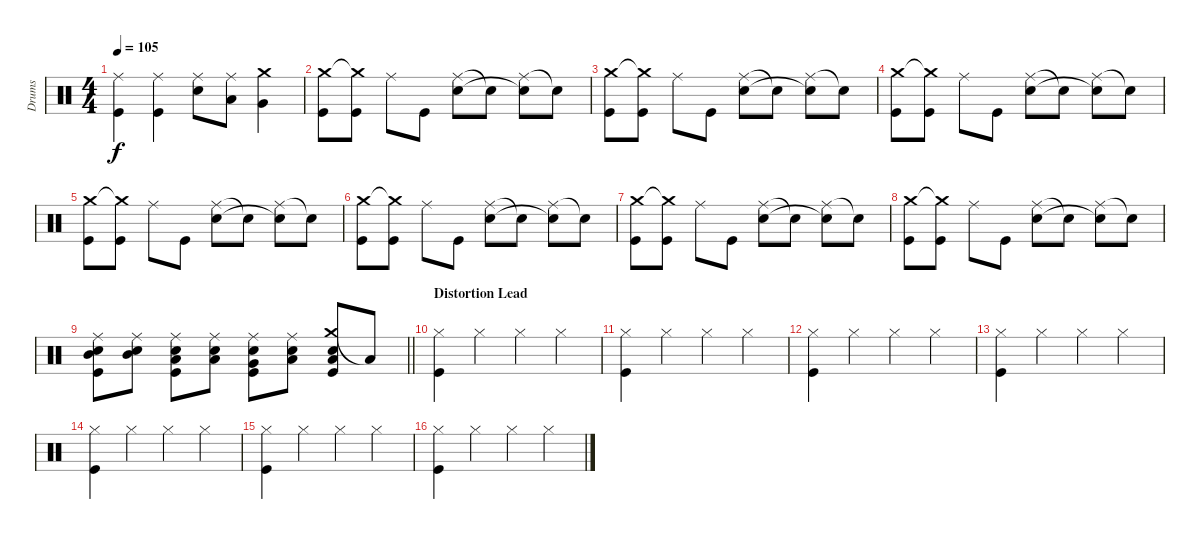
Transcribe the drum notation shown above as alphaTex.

\track ("Drums" "Drums") {instrument percussion}
\staff {score}
\articulation defaults
\ts (4 4)
\tempo 105
\clef neutral
\ks c
("Ride (middle)" "Kick (hit)").4{dy f} ("Ride (middle)" "Kick (hit)").4 ("Ride (middle)" "Snare (hit) 2").8 ("Ride (middle)" "Low Tom (hit)").8 ("Crash medium (hit)" "Very Low Tom (hit)").4 |
("Crash medium (hit)" "Kick (hit)").8 ("Crash medium (hit)"{t} "Kick (hit)").8 "Ride (middle)".8 "Kick (hit)".8 ("Ride (middle)" "Snare (hit) 2").8 "Snare (hit) 2"{t}.8 ("Ride (middle)" "Snare (hit) 2"{t}).8 "Snare (hit) 2"{t}.8 |
("Crash medium (hit)" "Kick (hit)").8 ("Crash medium (hit)"{t} "Kick (hit)").8 "Ride (middle)".8 "Kick (hit)".8 ("Ride (middle)" "Snare (hit) 2").8 "Snare (hit) 2"{t}.8 ("Ride (middle)" "Snare (hit) 2"{t}).8 "Snare (hit) 2"{t}.8 |
("Crash medium (hit)" "Kick (hit)").8 ("Crash medium (hit)"{t} "Kick (hit)").8 "Ride (middle)".8 "Kick (hit)".8 ("Ride (middle)" "Snare (hit) 2").8 "Snare (hit) 2"{t}.8 ("Ride (middle)" "Snare (hit) 2"{t}).8 "Snare (hit) 2"{t}.8 |
("Crash medium (hit)" "Kick (hit)").8 ("Crash medium (hit)"{t} "Kick (hit)").8 "Ride (middle)".8 "Kick (hit)".8 ("Ride (middle)" "Snare (hit) 2").8 "Snare (hit) 2"{t}.8 ("Ride (middle)" "Snare (hit) 2"{t}).8 "Snare (hit) 2"{t}.8 |
("Crash medium (hit)" "Kick (hit)").8 ("Crash medium (hit)"{t} "Kick (hit)").8 "Ride (middle)".8 "Kick (hit)".8 ("Ride (middle)" "Snare (hit) 2").8 "Snare (hit) 2"{t}.8 ("Ride (middle)" "Snare (hit) 2"{t}).8 "Snare (hit) 2"{t}.8 |
("Crash medium (hit)" "Kick (hit)").8 ("Crash medium (hit)"{t} "Kick (hit)").8 "Ride (middle)".8 "Kick (hit)".8 ("Ride (middle)" "Snare (hit) 2").8 "Snare (hit) 2"{t}.8 ("Ride (middle)" "Snare (hit) 2"{t}).8 "Snare (hit) 2"{t}.8 |
("Crash medium (hit)" "Kick (hit)").8 ("Crash medium (hit)"{t} "Kick (hit)").8 "Ride (middle)".8 "Kick (hit)".8 ("Ride (middle)" "Snare (hit) 2").8 "Snare (hit) 2"{t}.8 ("Ride (middle)" "Snare (hit) 2"{t}).8 "Snare (hit) 2"{t}.8 |
\barLineRight lightlight
("Ride (middle)" "Mid Tom (hit)" "Snare (hit) 2" "Kick (hit)").8 ("Ride (middle)" "Mid Tom (hit)" "Snare (hit) 2").8 ("Ride (middle)" "Low Tom (hit)" "Snare (hit) 2" "Kick (hit)").8 ("Ride (middle)" "Low Tom (hit)" "Snare (hit) 2").8 ("Ride (middle)" "Very Low Tom (hit)" "Snare (hit) 2" "Kick (hit)").8 ("Ride (middle)" "Low Tom (hit)" "Snare (hit) 2").8 ("Crash medium (hit)" "Low Floor Tom (hit)" "Snare (hit) 2" "Kick (hit)").8 "Low Floor Tom (hit)"{t}.8 |
\section ("" "Distortion Lead")
("Hi-Hat (closed)" "Kick (hit)").4 "Hi-Hat (closed)".4 "Hi-Hat (closed)".4 "Hi-Hat (closed)".4 |
("Hi-Hat (closed)" "Kick (hit)").4 "Hi-Hat (closed)".4 "Hi-Hat (closed)".4 "Hi-Hat (closed)".4 |
("Hi-Hat (closed)" "Kick (hit)").4 "Hi-Hat (closed)".4 "Hi-Hat (closed)".4 "Hi-Hat (closed)".4 |
("Hi-Hat (closed)" "Kick (hit)").4 "Hi-Hat (closed)".4 "Hi-Hat (closed)".4 "Hi-Hat (closed)".4 |
("Hi-Hat (closed)" "Kick (hit)").4 "Hi-Hat (closed)".4 "Hi-Hat (closed)".4 "Hi-Hat (closed)".4 |
("Hi-Hat (closed)" "Kick (hit)").4 "Hi-Hat (closed)".4 "Hi-Hat (closed)".4 "Hi-Hat (closed)".4 |
("Hi-Hat (closed)" "Kick (hit)").4 "Hi-Hat (closed)".4 "Hi-Hat (closed)".4 "Hi-Hat (closed)".4
